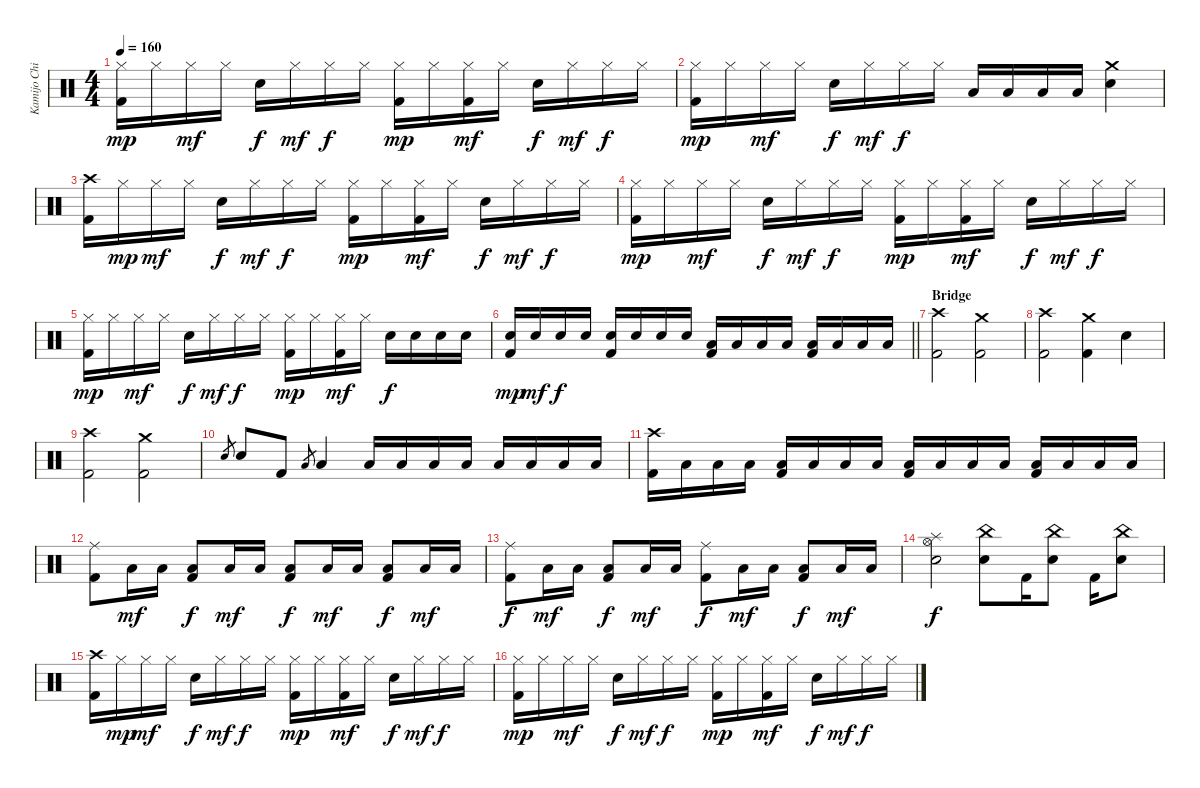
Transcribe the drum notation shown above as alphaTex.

\track ("Kamijo Chihiro" "Kamijo Chi") {instrument percussion}
\staff {score}
\articulation defaults
\ts (4 4)
\tempo 160
\clef neutral
\ks c
("Hi-Hat (closed)" "Kick (hit) 2").16{dy mp} "Hi-Hat (closed)".16 "Hi-Hat (closed)".16{dy mf} "Hi-Hat (closed)".16 "Snare (hit) 2".16{dy f} "Hi-Hat (closed)".16{dy mf} "Hi-Hat (closed)".16{dy f} "Hi-Hat (closed)".16 ("Hi-Hat (closed)" "Kick (hit) 2").16{dy mp} "Hi-Hat (closed)".16 ("Hi-Hat (closed)" "Kick (hit) 2").16{dy mf} "Hi-Hat (closed)".16 "Snare (hit) 2".16{dy f} "Hi-Hat (closed)".16{dy mf} "Hi-Hat (closed)".16{dy f} "Hi-Hat (closed)".16 |
("Hi-Hat (closed)" "Kick (hit) 2").16{dy mp} "Hi-Hat (closed)".16 "Hi-Hat (closed)".16{dy mf} "Hi-Hat (closed)".16 "Snare (hit) 2".16{dy f} "Hi-Hat (closed)".16{dy mf} "Hi-Hat (closed)".16{dy f} "Hi-Hat (closed)".16 "Low Tom (hit)".16 "Low Tom (hit)".16 "Low Floor Tom (hit)".16 "Low Floor Tom (hit)".16 ("Crash medium (hit)" "Snare (hit) 2").4 |
("Crash high (hit)" "Kick (hit) 2").16 "Hi-Hat (closed)".16{dy mp} "Hi-Hat (closed)".16{dy mf} "Hi-Hat (closed)".16 "Snare (hit) 2".16{dy f} "Hi-Hat (closed)".16{dy mf} "Hi-Hat (closed)".16{dy f} "Hi-Hat (closed)".16 ("Hi-Hat (closed)" "Kick (hit) 2").16{dy mp} "Hi-Hat (closed)".16 ("Hi-Hat (closed)" "Kick (hit) 2").16{dy mf} "Hi-Hat (closed)".16 "Snare (hit) 2".16{dy f} "Hi-Hat (closed)".16{dy mf} "Hi-Hat (closed)".16{dy f} "Hi-Hat (closed)".16 |
("Hi-Hat (closed)" "Kick (hit) 2").16{dy mp} "Hi-Hat (closed)".16 "Hi-Hat (closed)".16{dy mf} "Hi-Hat (closed)".16 "Snare (hit) 2".16{dy f} "Hi-Hat (closed)".16{dy mf} "Hi-Hat (closed)".16{dy f} "Hi-Hat (closed)".16 ("Hi-Hat (closed)" "Kick (hit) 2").16{dy mp} "Hi-Hat (closed)".16 ("Hi-Hat (closed)" "Kick (hit) 2").16{dy mf} "Hi-Hat (closed)".16 "Snare (hit) 2".16{dy f} "Hi-Hat (closed)".16{dy mf} "Hi-Hat (closed)".16{dy f} "Hi-Hat (closed)".16 |
("Hi-Hat (closed)" "Kick (hit) 2").16{dy mp} "Hi-Hat (closed)".16 "Hi-Hat (closed)".16{dy mf} "Hi-Hat (closed)".16 "Snare (hit) 2".16{dy f} "Hi-Hat (closed)".16{dy mf} "Hi-Hat (closed)".16{dy f} "Hi-Hat (closed)".16 ("Hi-Hat (closed)" "Kick (hit) 2").16{dy mp} "Hi-Hat (closed)".16 ("Hi-Hat (closed)" "Kick (hit) 2").16{dy mf} "Hi-Hat (closed)".16 "Snare (hit) 2".16{dy f} "Snare (hit) 2".16 "Snare (hit) 2".16 "Snare (hit) 2".16 |
\barLineRight lightlight
("Snare (hit) 2" "Kick (hit) 2").16{dy mp} "Snare (hit) 2".16{dy mf} "Snare (hit) 2".16{dy f} "Snare (hit) 2".16 ("Snare (hit) 2" "Kick (hit) 2").16 "Snare (hit) 2".16 "Snare (hit) 2".16 "Snare (hit) 2".16 ("Low Tom (hit)" "Kick (hit) 2").16 "Low Tom (hit)".16 "Low Tom (hit)".16 "Low Tom (hit)".16 ("Low Floor Tom (hit)" "Kick (hit) 2").16 "Low Floor Tom (hit)".16 "Low Floor Tom (hit)".16 "Low Floor Tom (hit)".16 |
\section ("" "Bridge")
("Crash high (hit)" "Kick (hit) 2").2 ("Crash medium (hit)" "Kick (hit) 2").2 |
("Crash high (hit)" "Kick (hit) 2").2 ("Crash medium (hit)" "Kick (hit) 2").4 "Snare (hit) 2".4 |
("Crash high (hit)" "Kick (hit) 2").2 ("Crash medium (hit)" "Kick (hit) 2").2 |
"Snare (hit) 2".8{gr} "Snare (hit) 2".8 "Kick (hit) 2".8 "Low Tom (hit)".8{gr} "Low Tom (hit)".4 "Low Tom (hit)".16 "Low Tom (hit)".16 "Low Tom (hit)".16 "Low Tom (hit)".16 "Low Floor Tom (hit)".16 "Low Floor Tom (hit)".16 "Low Floor Tom (hit)".16 "Low Floor Tom (hit)".16 |
("Crash high (hit)" "Kick (hit) 2").16 "Low Floor Tom (hit)".16 "Low Floor Tom (hit)".16 "Low Floor Tom (hit)".16 ("Low Floor Tom (hit)" "Kick (hit) 2").16 "Low Floor Tom (hit)".16 "Low Floor Tom (hit)".16 "Low Floor Tom (hit)".16 ("Low Floor Tom (hit)" "Kick (hit) 2").16 "Low Floor Tom (hit)".16 "Low Floor Tom (hit)".16 "Low Floor Tom (hit)".16 ("Low Floor Tom (hit)" "Kick (hit) 2").16 "Low Floor Tom (hit)".16 "Low Floor Tom (hit)".16 "Low Floor Tom (hit)".16 |
("Ride (middle)" "Kick (hit) 2").8 "Low Floor Tom (hit)".16{dy mf} "Low Floor Tom (hit)".16 ("Low Floor Tom (hit)" "Kick (hit) 2").8{dy f} "Low Floor Tom (hit)".16{dy mf} "Low Floor Tom (hit)".16 ("Low Floor Tom (hit)" "Kick (hit) 2").8{dy f} "Low Floor Tom (hit)".16{dy mf} "Low Floor Tom (hit)".16 ("Low Floor Tom (hit)" "Kick (hit) 2").8{dy f} "Low Floor Tom (hit)".16{dy mf} "Low Floor Tom (hit)".16 |
("Ride (middle)" "Kick (hit) 2").8{dy f} "Low Floor Tom (hit)".16{dy mf} "Low Floor Tom (hit)".16 ("Low Floor Tom (hit)" "Kick (hit) 2").8{dy f} "Low Floor Tom (hit)".16{dy mf} "Low Floor Tom (hit)".16 ("Ride (middle)" "Kick (hit) 2").8{dy f} "Low Floor Tom (hit)".16{dy mf} "Low Floor Tom (hit)".16 ("Low Floor Tom (hit)" "Kick (hit) 2").8{dy f} "Low Floor Tom (hit)".16{dy mf} "Low Floor Tom (hit)".16 |
("Splash (hit)" "Hi-Hat (open)" "Snare (hit) 2").2{dy f} ("China (hit)" "Snare (hit) 2").8 "Kick (hit) 2".16 ("China (hit)" "Snare (hit) 2").8 "Kick (hit) 2".16 ("China (hit)" "Snare (hit) 2").8 |
("Crash high (hit)" "Kick (hit) 2").16 "Hi-Hat (closed)".16{dy mp} "Hi-Hat (closed)".16{dy mf} "Hi-Hat (closed)".16 "Snare (hit) 2".16{dy f} "Hi-Hat (closed)".16{dy mf} "Hi-Hat (closed)".16{dy f} "Hi-Hat (closed)".16 ("Hi-Hat (closed)" "Kick (hit) 2").16{dy mp} "Hi-Hat (closed)".16 ("Hi-Hat (closed)" "Kick (hit) 2").16{dy mf} "Hi-Hat (closed)".16 "Snare (hit) 2".16{dy f} "Hi-Hat (closed)".16{dy mf} "Hi-Hat (closed)".16{dy f} "Hi-Hat (closed)".16 |
("Hi-Hat (closed)" "Kick (hit) 2").16{dy mp} "Hi-Hat (closed)".16 "Hi-Hat (closed)".16{dy mf} "Hi-Hat (closed)".16 "Snare (hit) 2".16{dy f} "Hi-Hat (closed)".16{dy mf} "Hi-Hat (closed)".16{dy f} "Hi-Hat (closed)".16 ("Hi-Hat (closed)" "Kick (hit) 2").16{dy mp} "Hi-Hat (closed)".16 ("Hi-Hat (closed)" "Kick (hit) 2").16{dy mf} "Hi-Hat (closed)".16 "Snare (hit) 2".16{dy f} "Hi-Hat (closed)".16{dy mf} "Hi-Hat (closed)".16{dy f} "Hi-Hat (closed)".16
